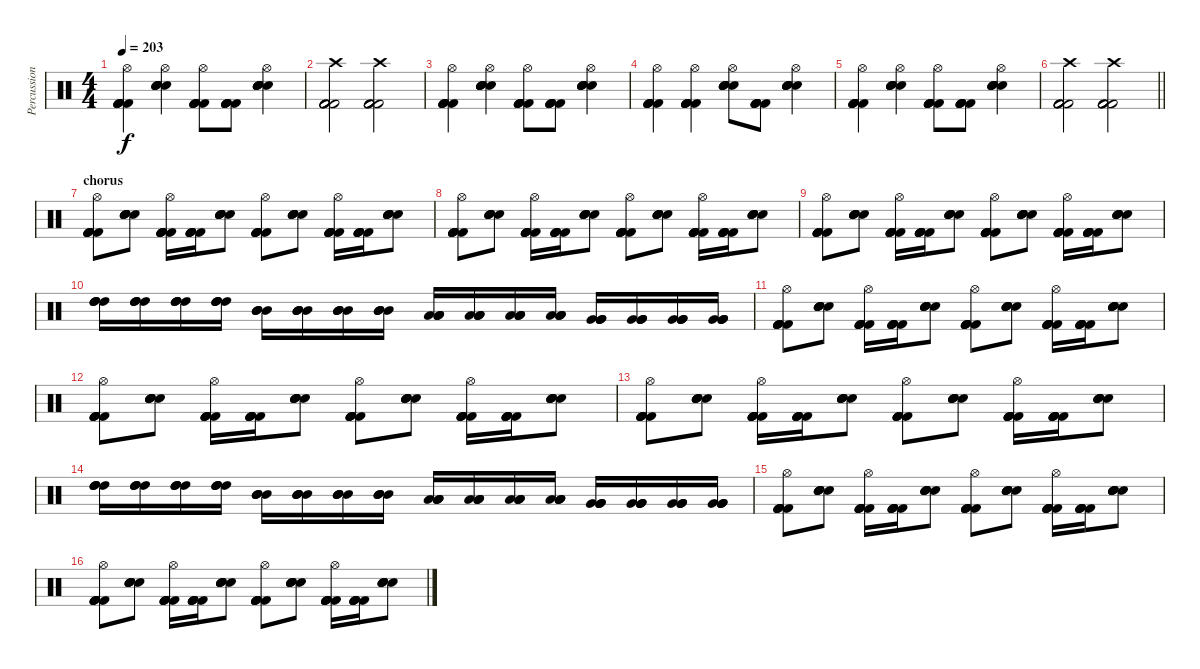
\track ("Percussion" "Percussion") {instrument percussion}
\staff {score}
\articulation defaults
\ts (4 4)
\tempo 203
\clef neutral
\ks c
("Kick (hit) 2" "Kick (hit) 2" "Kick (hit) 2" "Kick (hit) 2" "Kick (hit) 2" "Hi-Hat (open)").4{dy f} ("Electric Snare (hit)" "Electric Snare (hit)" "Electric Snare (hit)" "Electric Snare (hit)" "Electric Snare (hit)" "Hi-Hat (open)").4 ("Kick (hit) 2" "Kick (hit) 2" "Kick (hit) 2" "Kick (hit) 2" "Kick (hit) 2" "Hi-Hat (open)").8 ("Kick (hit) 2" "Kick (hit) 2" "Kick (hit) 2" "Kick (hit) 2" "Kick (hit) 2").8 ("Electric Snare (hit)" "Electric Snare (hit)" "Electric Snare (hit)" "Electric Snare (hit)" "Electric Snare (hit)" "Hi-Hat (open)").4 |
("Kick (hit) 2" "Kick (hit) 2" "Kick (hit) 2" "Kick (hit) 2" "Kick (hit) 2" "Crash high (hit)").2 ("Kick (hit) 2" "Kick (hit) 2" "Kick (hit) 2" "Kick (hit) 2" "Kick (hit) 2" "Crash high (hit)").2 |
("Kick (hit) 2" "Kick (hit) 2" "Kick (hit) 2" "Kick (hit) 2" "Kick (hit) 2" "Hi-Hat (open)").4 ("Electric Snare (hit)" "Electric Snare (hit)" "Electric Snare (hit)" "Electric Snare (hit)" "Electric Snare (hit)" "Hi-Hat (open)").4 ("Kick (hit) 2" "Kick (hit) 2" "Kick (hit) 2" "Kick (hit) 2" "Kick (hit) 2" "Hi-Hat (open)").8 ("Kick (hit) 2" "Kick (hit) 2" "Kick (hit) 2" "Kick (hit) 2" "Kick (hit) 2").8 ("Electric Snare (hit)" "Electric Snare (hit)" "Electric Snare (hit)" "Electric Snare (hit)" "Electric Snare (hit)" "Hi-Hat (open)").4 |
("Kick (hit) 2" "Kick (hit) 2" "Kick (hit) 2" "Kick (hit) 2" "Kick (hit) 2" "Hi-Hat (open)").4 ("Kick (hit) 2" "Kick (hit) 2" "Kick (hit) 2" "Kick (hit) 2" "Kick (hit) 2" "Hi-Hat (open)").4 ("Electric Snare (hit)" "Electric Snare (hit)" "Electric Snare (hit)" "Electric Snare (hit)" "Electric Snare (hit)" "Hi-Hat (open)").8 ("Kick (hit) 2" "Kick (hit) 2" "Kick (hit) 2" "Kick (hit) 2" "Kick (hit) 2").8 ("Electric Snare (hit)" "Electric Snare (hit)" "Electric Snare (hit)" "Electric Snare (hit)" "Electric Snare (hit)" "Hi-Hat (open)").4 |
("Kick (hit) 2" "Kick (hit) 2" "Kick (hit) 2" "Kick (hit) 2" "Kick (hit) 2" "Hi-Hat (open)").4 ("Electric Snare (hit)" "Electric Snare (hit)" "Electric Snare (hit)" "Electric Snare (hit)" "Electric Snare (hit)" "Hi-Hat (open)").4 ("Kick (hit) 2" "Kick (hit) 2" "Kick (hit) 2" "Kick (hit) 2" "Kick (hit) 2" "Hi-Hat (open)").8 ("Kick (hit) 2" "Kick (hit) 2" "Kick (hit) 2" "Kick (hit) 2" "Kick (hit) 2").8 ("Electric Snare (hit)" "Electric Snare (hit)" "Electric Snare (hit)" "Electric Snare (hit)" "Electric Snare (hit)" "Hi-Hat (open)").4 |
\barLineRight lightlight
("Kick (hit) 2" "Kick (hit) 2" "Kick (hit) 2" "Kick (hit) 2" "Kick (hit) 2" "Crash high (hit)").2 ("Kick (hit) 2" "Kick (hit) 2" "Kick (hit) 2" "Kick (hit) 2" "Kick (hit) 2" "Crash high (hit)").2 |
\section ("" "chorus")
("Kick (hit) 2" "Kick (hit) 2" "Kick (hit) 2" "Kick (hit) 2" "Kick (hit) 2" "Hi-Hat (open)").8 ("Electric Snare (hit)" "Electric Snare (hit)" "Electric Snare (hit)" "Electric Snare (hit)" "Electric Snare (hit)").8 ("Kick (hit) 2" "Kick (hit) 2" "Kick (hit) 2" "Kick (hit) 2" "Kick (hit) 2" "Hi-Hat (open)").16 ("Kick (hit) 2" "Kick (hit) 2" "Kick (hit) 2" "Kick (hit) 2" "Kick (hit) 2").16 ("Electric Snare (hit)" "Electric Snare (hit)" "Electric Snare (hit)" "Electric Snare (hit)" "Electric Snare (hit)").8 ("Kick (hit) 2" "Kick (hit) 2" "Kick (hit) 2" "Kick (hit) 2" "Kick (hit) 2" "Hi-Hat (open)").8 ("Electric Snare (hit)" "Electric Snare (hit)" "Electric Snare (hit)" "Electric Snare (hit)" "Electric Snare (hit)").8 ("Kick (hit) 2" "Kick (hit) 2" "Kick (hit) 2" "Kick (hit) 2" "Kick (hit) 2" "Hi-Hat (open)").16 ("Kick (hit) 2" "Kick (hit) 2" "Kick (hit) 2" "Kick (hit) 2" "Kick (hit) 2").16 ("Electric Snare (hit)" "Electric Snare (hit)" "Electric Snare (hit)" "Electric Snare (hit)" "Electric Snare (hit)").8 |
("Kick (hit) 2" "Kick (hit) 2" "Kick (hit) 2" "Kick (hit) 2" "Kick (hit) 2" "Hi-Hat (open)").8 ("Electric Snare (hit)" "Electric Snare (hit)" "Electric Snare (hit)" "Electric Snare (hit)" "Electric Snare (hit)").8 ("Kick (hit) 2" "Kick (hit) 2" "Kick (hit) 2" "Kick (hit) 2" "Kick (hit) 2" "Hi-Hat (open)").16 ("Kick (hit) 2" "Kick (hit) 2" "Kick (hit) 2" "Kick (hit) 2" "Kick (hit) 2").16 ("Electric Snare (hit)" "Electric Snare (hit)" "Electric Snare (hit)" "Electric Snare (hit)" "Electric Snare (hit)").8 ("Kick (hit) 2" "Kick (hit) 2" "Kick (hit) 2" "Kick (hit) 2" "Kick (hit) 2" "Hi-Hat (open)").8 ("Electric Snare (hit)" "Electric Snare (hit)" "Electric Snare (hit)" "Electric Snare (hit)" "Electric Snare (hit)").8 ("Kick (hit) 2" "Kick (hit) 2" "Kick (hit) 2" "Kick (hit) 2" "Kick (hit) 2" "Hi-Hat (open)").16 ("Kick (hit) 2" "Kick (hit) 2" "Kick (hit) 2" "Kick (hit) 2" "Kick (hit) 2").16 ("Electric Snare (hit)" "Electric Snare (hit)" "Electric Snare (hit)" "Electric Snare (hit)" "Electric Snare (hit)").8 |
("Kick (hit) 2" "Kick (hit) 2" "Kick (hit) 2" "Kick (hit) 2" "Kick (hit) 2" "Hi-Hat (open)").8 ("Electric Snare (hit)" "Electric Snare (hit)" "Electric Snare (hit)" "Electric Snare (hit)" "Electric Snare (hit)").8 ("Kick (hit) 2" "Kick (hit) 2" "Kick (hit) 2" "Kick (hit) 2" "Kick (hit) 2" "Hi-Hat (open)").16 ("Kick (hit) 2" "Kick (hit) 2" "Kick (hit) 2" "Kick (hit) 2" "Kick (hit) 2").16 ("Electric Snare (hit)" "Electric Snare (hit)" "Electric Snare (hit)" "Electric Snare (hit)" "Electric Snare (hit)").8 ("Kick (hit) 2" "Kick (hit) 2" "Kick (hit) 2" "Kick (hit) 2" "Kick (hit) 2" "Hi-Hat (open)").8 ("Electric Snare (hit)" "Electric Snare (hit)" "Electric Snare (hit)" "Electric Snare (hit)" "Electric Snare (hit)").8 ("Kick (hit) 2" "Kick (hit) 2" "Kick (hit) 2" "Kick (hit) 2" "Kick (hit) 2" "Hi-Hat (open)").16 ("Kick (hit) 2" "Kick (hit) 2" "Kick (hit) 2" "Kick (hit) 2" "Kick (hit) 2").16 ("Electric Snare (hit)" "Electric Snare (hit)" "Electric Snare (hit)" "Electric Snare (hit)" "Electric Snare (hit)").8 |
("High Tom (hit)" "High Tom (hit)" "High Tom (hit)" "High Tom (hit)").16 ("High Tom (hit)" "High Tom (hit)" "High Tom (hit)" "High Tom (hit)").16 ("High Tom (hit)" "High Tom (hit)" "High Tom (hit)" "High Tom (hit)").16 ("High Tom (hit)" "High Tom (hit)" "High Tom (hit)" "High Tom (hit)").16 ("Mid Tom (hit)" "Mid Tom (hit)" "Mid Tom (hit)" "Mid Tom (hit)").16 ("Mid Tom (hit)" "Mid Tom (hit)" "Mid Tom (hit)" "Mid Tom (hit)").16 ("Mid Tom (hit)" "Mid Tom (hit)" "Mid Tom (hit)" "Mid Tom (hit)").16 ("Mid Tom (hit)" "Mid Tom (hit)" "Mid Tom (hit)" "Mid Tom (hit)").16 ("Low Tom (hit)" "Low Tom (hit)" "Low Tom (hit)" "Low Tom (hit)").16 ("Low Tom (hit)" "Low Tom (hit)" "Low Tom (hit)" "Low Tom (hit)").16 ("Low Tom (hit)" "Low Tom (hit)" "Low Tom (hit)" "Low Tom (hit)").16 ("Low Tom (hit)" "Low Tom (hit)" "Low Tom (hit)" "Low Tom (hit)").16 ("Very Low Tom (hit)" "Very Low Tom (hit)" "Very Low Tom (hit)" "Very Low Tom (hit)").16 ("Very Low Tom (hit)" "Very Low Tom (hit)" "Very Low Tom (hit)" "Very Low Tom (hit)").16 ("Very Low Tom (hit)" "Very Low Tom (hit)" "Very Low Tom (hit)" "Very Low Tom (hit)").16 ("Very Low Tom (hit)" "Very Low Tom (hit)" "Very Low Tom (hit)" "Very Low Tom (hit)").16 |
("Kick (hit) 2" "Kick (hit) 2" "Kick (hit) 2" "Kick (hit) 2" "Kick (hit) 2" "Hi-Hat (open)").8 ("Electric Snare (hit)" "Electric Snare (hit)" "Electric Snare (hit)" "Electric Snare (hit)" "Electric Snare (hit)").8 ("Kick (hit) 2" "Kick (hit) 2" "Kick (hit) 2" "Kick (hit) 2" "Kick (hit) 2" "Hi-Hat (open)").16 ("Kick (hit) 2" "Kick (hit) 2" "Kick (hit) 2" "Kick (hit) 2" "Kick (hit) 2").16 ("Electric Snare (hit)" "Electric Snare (hit)" "Electric Snare (hit)" "Electric Snare (hit)" "Electric Snare (hit)").8 ("Kick (hit) 2" "Kick (hit) 2" "Kick (hit) 2" "Kick (hit) 2" "Kick (hit) 2" "Hi-Hat (open)").8 ("Electric Snare (hit)" "Electric Snare (hit)" "Electric Snare (hit)" "Electric Snare (hit)" "Electric Snare (hit)").8 ("Kick (hit) 2" "Kick (hit) 2" "Kick (hit) 2" "Kick (hit) 2" "Kick (hit) 2" "Hi-Hat (open)").16 ("Kick (hit) 2" "Kick (hit) 2" "Kick (hit) 2" "Kick (hit) 2" "Kick (hit) 2").16 ("Electric Snare (hit)" "Electric Snare (hit)" "Electric Snare (hit)" "Electric Snare (hit)" "Electric Snare (hit)").8 |
("Kick (hit) 2" "Kick (hit) 2" "Kick (hit) 2" "Kick (hit) 2" "Kick (hit) 2" "Hi-Hat (open)").8 ("Electric Snare (hit)" "Electric Snare (hit)" "Electric Snare (hit)" "Electric Snare (hit)" "Electric Snare (hit)").8 ("Kick (hit) 2" "Kick (hit) 2" "Kick (hit) 2" "Kick (hit) 2" "Kick (hit) 2" "Hi-Hat (open)").16 ("Kick (hit) 2" "Kick (hit) 2" "Kick (hit) 2" "Kick (hit) 2" "Kick (hit) 2").16 ("Electric Snare (hit)" "Electric Snare (hit)" "Electric Snare (hit)" "Electric Snare (hit)" "Electric Snare (hit)").8 ("Kick (hit) 2" "Kick (hit) 2" "Kick (hit) 2" "Kick (hit) 2" "Kick (hit) 2" "Hi-Hat (open)").8 ("Electric Snare (hit)" "Electric Snare (hit)" "Electric Snare (hit)" "Electric Snare (hit)" "Electric Snare (hit)").8 ("Kick (hit) 2" "Kick (hit) 2" "Kick (hit) 2" "Kick (hit) 2" "Kick (hit) 2" "Hi-Hat (open)").16 ("Kick (hit) 2" "Kick (hit) 2" "Kick (hit) 2" "Kick (hit) 2" "Kick (hit) 2").16 ("Electric Snare (hit)" "Electric Snare (hit)" "Electric Snare (hit)" "Electric Snare (hit)" "Electric Snare (hit)").8 |
("Kick (hit) 2" "Kick (hit) 2" "Kick (hit) 2" "Kick (hit) 2" "Kick (hit) 2" "Hi-Hat (open)").8 ("Electric Snare (hit)" "Electric Snare (hit)" "Electric Snare (hit)" "Electric Snare (hit)" "Electric Snare (hit)").8 ("Kick (hit) 2" "Kick (hit) 2" "Kick (hit) 2" "Kick (hit) 2" "Kick (hit) 2" "Hi-Hat (open)").16 ("Kick (hit) 2" "Kick (hit) 2" "Kick (hit) 2" "Kick (hit) 2" "Kick (hit) 2").16 ("Electric Snare (hit)" "Electric Snare (hit)" "Electric Snare (hit)" "Electric Snare (hit)" "Electric Snare (hit)").8 ("Kick (hit) 2" "Kick (hit) 2" "Kick (hit) 2" "Kick (hit) 2" "Kick (hit) 2" "Hi-Hat (open)").8 ("Electric Snare (hit)" "Electric Snare (hit)" "Electric Snare (hit)" "Electric Snare (hit)" "Electric Snare (hit)").8 ("Kick (hit) 2" "Kick (hit) 2" "Kick (hit) 2" "Kick (hit) 2" "Kick (hit) 2" "Hi-Hat (open)").16 ("Kick (hit) 2" "Kick (hit) 2" "Kick (hit) 2" "Kick (hit) 2" "Kick (hit) 2").16 ("Electric Snare (hit)" "Electric Snare (hit)" "Electric Snare (hit)" "Electric Snare (hit)" "Electric Snare (hit)").8 |
("High Tom (hit)" "High Tom (hit)" "High Tom (hit)" "High Tom (hit)").16 ("High Tom (hit)" "High Tom (hit)" "High Tom (hit)" "High Tom (hit)").16 ("High Tom (hit)" "High Tom (hit)" "High Tom (hit)" "High Tom (hit)").16 ("High Tom (hit)" "High Tom (hit)" "High Tom (hit)" "High Tom (hit)").16 ("Mid Tom (hit)" "Mid Tom (hit)" "Mid Tom (hit)" "Mid Tom (hit)").16 ("Mid Tom (hit)" "Mid Tom (hit)" "Mid Tom (hit)" "Mid Tom (hit)").16 ("Mid Tom (hit)" "Mid Tom (hit)" "Mid Tom (hit)" "Mid Tom (hit)").16 ("Mid Tom (hit)" "Mid Tom (hit)" "Mid Tom (hit)" "Mid Tom (hit)").16 ("Low Tom (hit)" "Low Tom (hit)" "Low Tom (hit)" "Low Tom (hit)").16 ("Low Tom (hit)" "Low Tom (hit)" "Low Tom (hit)" "Low Tom (hit)").16 ("Low Tom (hit)" "Low Tom (hit)" "Low Tom (hit)" "Low Tom (hit)").16 ("Low Tom (hit)" "Low Tom (hit)" "Low Tom (hit)" "Low Tom (hit)").16 ("Very Low Tom (hit)" "Very Low Tom (hit)" "Very Low Tom (hit)" "Very Low Tom (hit)").16 ("Very Low Tom (hit)" "Very Low Tom (hit)" "Very Low Tom (hit)" "Very Low Tom (hit)").16 ("Very Low Tom (hit)" "Very Low Tom (hit)" "Very Low Tom (hit)" "Very Low Tom (hit)").16 ("Very Low Tom (hit)" "Very Low Tom (hit)" "Very Low Tom (hit)" "Very Low Tom (hit)").16 |
("Kick (hit) 2" "Kick (hit) 2" "Kick (hit) 2" "Kick (hit) 2" "Kick (hit) 2" "Hi-Hat (open)").8 ("Electric Snare (hit)" "Electric Snare (hit)" "Electric Snare (hit)" "Electric Snare (hit)" "Electric Snare (hit)").8 ("Kick (hit) 2" "Kick (hit) 2" "Kick (hit) 2" "Kick (hit) 2" "Kick (hit) 2" "Hi-Hat (open)").16 ("Kick (hit) 2" "Kick (hit) 2" "Kick (hit) 2" "Kick (hit) 2" "Kick (hit) 2").16 ("Electric Snare (hit)" "Electric Snare (hit)" "Electric Snare (hit)" "Electric Snare (hit)" "Electric Snare (hit)").8 ("Kick (hit) 2" "Kick (hit) 2" "Kick (hit) 2" "Kick (hit) 2" "Kick (hit) 2" "Hi-Hat (open)").8 ("Electric Snare (hit)" "Electric Snare (hit)" "Electric Snare (hit)" "Electric Snare (hit)" "Electric Snare (hit)").8 ("Kick (hit) 2" "Kick (hit) 2" "Kick (hit) 2" "Kick (hit) 2" "Kick (hit) 2" "Hi-Hat (open)").16 ("Kick (hit) 2" "Kick (hit) 2" "Kick (hit) 2" "Kick (hit) 2" "Kick (hit) 2").16 ("Electric Snare (hit)" "Electric Snare (hit)" "Electric Snare (hit)" "Electric Snare (hit)" "Electric Snare (hit)").8 |
("Kick (hit) 2" "Kick (hit) 2" "Kick (hit) 2" "Kick (hit) 2" "Kick (hit) 2" "Hi-Hat (open)").8 ("Electric Snare (hit)" "Electric Snare (hit)" "Electric Snare (hit)" "Electric Snare (hit)" "Electric Snare (hit)").8 ("Kick (hit) 2" "Kick (hit) 2" "Kick (hit) 2" "Kick (hit) 2" "Kick (hit) 2" "Hi-Hat (open)").16 ("Kick (hit) 2" "Kick (hit) 2" "Kick (hit) 2" "Kick (hit) 2" "Kick (hit) 2").16 ("Electric Snare (hit)" "Electric Snare (hit)" "Electric Snare (hit)" "Electric Snare (hit)" "Electric Snare (hit)").8 ("Kick (hit) 2" "Kick (hit) 2" "Kick (hit) 2" "Kick (hit) 2" "Kick (hit) 2" "Hi-Hat (open)").8 ("Electric Snare (hit)" "Electric Snare (hit)" "Electric Snare (hit)" "Electric Snare (hit)" "Electric Snare (hit)").8 ("Kick (hit) 2" "Kick (hit) 2" "Kick (hit) 2" "Kick (hit) 2" "Kick (hit) 2" "Hi-Hat (open)").16 ("Kick (hit) 2" "Kick (hit) 2" "Kick (hit) 2" "Kick (hit) 2" "Kick (hit) 2").16 ("Electric Snare (hit)" "Electric Snare (hit)" "Electric Snare (hit)" "Electric Snare (hit)" "Electric Snare (hit)").8
